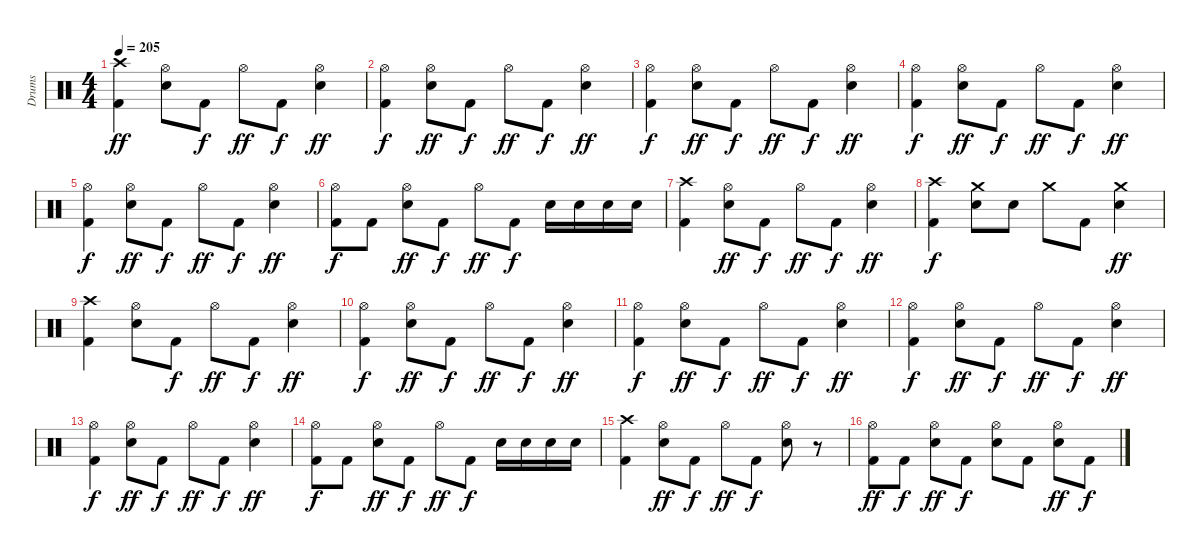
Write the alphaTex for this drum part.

\track ("Drums" "Drums") {instrument percussion}
\staff {score}
\articulation defaults
\ts (4 4)
\tempo 205
\clef neutral
\ks c
("Crash high (hit)" "Kick (hit) 2").4{dy ff} ("Hi-Hat (open)" "Electric Snare (hit)").8 "Kick (hit) 2".8{dy f} "Hi-Hat (open)".8{dy ff} "Kick (hit) 2".8{dy f} ("Hi-Hat (open)" "Electric Snare (hit)").4{dy ff} |
("Hi-Hat (open)" "Kick (hit) 2").4{dy f} ("Hi-Hat (open)" "Electric Snare (hit)").8{dy ff} "Kick (hit) 2".8{dy f} "Hi-Hat (open)".8{dy ff} "Kick (hit) 2".8{dy f} ("Hi-Hat (open)" "Electric Snare (hit)").4{dy ff} |
("Hi-Hat (open)" "Kick (hit) 2").4{dy f} ("Hi-Hat (open)" "Electric Snare (hit)").8{dy ff} "Kick (hit) 2".8{dy f} "Hi-Hat (open)".8{dy ff} "Kick (hit) 2".8{dy f} ("Hi-Hat (open)" "Electric Snare (hit)").4{dy ff} |
("Hi-Hat (open)" "Kick (hit) 2").4{dy f} ("Hi-Hat (open)" "Electric Snare (hit)").8{dy ff} "Kick (hit) 2".8{dy f} "Hi-Hat (open)".8{dy ff} "Kick (hit) 2".8{dy f} ("Hi-Hat (open)" "Electric Snare (hit)").4{dy ff} |
("Hi-Hat (open)" "Kick (hit) 2").4{dy f} ("Hi-Hat (open)" "Electric Snare (hit)").8{dy ff} "Kick (hit) 2".8{dy f} "Hi-Hat (open)".8{dy ff} "Kick (hit) 2".8{dy f} ("Hi-Hat (open)" "Electric Snare (hit)").4{dy ff} |
("Hi-Hat (open)" "Kick (hit) 2").8{dy f} "Kick (hit) 2".8 ("Hi-Hat (open)" "Electric Snare (hit)").8{dy ff} "Kick (hit) 2".8{dy f} "Hi-Hat (open)".8{dy ff} "Kick (hit) 2".8{dy f} "Electric Snare (hit)".16 "Electric Snare (hit)".16 "Electric Snare (hit)".16 "Electric Snare (hit)".16 |
("Crash high (hit)" "Kick (hit) 2").4 ("Hi-Hat (open)" "Electric Snare (hit)").8{dy ff} "Kick (hit) 2".8{dy f} "Hi-Hat (open)".8{dy ff} "Kick (hit) 2".8{dy f} ("Hi-Hat (open)" "Electric Snare (hit)").4{dy ff} |
("Crash high (hit)" "Kick (hit) 2").4{dy f} ("Crash medium (hit)" "Electric Snare (hit)").8 "Electric Snare (hit)".8 "Crash medium (hit)".8 "Kick (hit) 2".8 ("Crash medium (hit)" "Electric Snare (hit)").4{dy ff} |
("Crash high (hit)" "Kick (hit) 2").4 ("Hi-Hat (open)" "Electric Snare (hit)").8 "Kick (hit) 2".8{dy f} "Hi-Hat (open)".8{dy ff} "Kick (hit) 2".8{dy f} ("Hi-Hat (open)" "Electric Snare (hit)").4{dy ff} |
("Hi-Hat (open)" "Kick (hit) 2").4{dy f} ("Hi-Hat (open)" "Electric Snare (hit)").8{dy ff} "Kick (hit) 2".8{dy f} "Hi-Hat (open)".8{dy ff} "Kick (hit) 2".8{dy f} ("Hi-Hat (open)" "Electric Snare (hit)").4{dy ff} |
("Hi-Hat (open)" "Kick (hit) 2").4{dy f} ("Hi-Hat (open)" "Electric Snare (hit)").8{dy ff} "Kick (hit) 2".8{dy f} "Hi-Hat (open)".8{dy ff} "Kick (hit) 2".8{dy f} ("Hi-Hat (open)" "Electric Snare (hit)").4{dy ff} |
("Hi-Hat (open)" "Kick (hit) 2").4{dy f} ("Hi-Hat (open)" "Electric Snare (hit)").8{dy ff} "Kick (hit) 2".8{dy f} "Hi-Hat (open)".8{dy ff} "Kick (hit) 2".8{dy f} ("Hi-Hat (open)" "Electric Snare (hit)").4{dy ff} |
("Hi-Hat (open)" "Kick (hit) 2").4{dy f} ("Hi-Hat (open)" "Electric Snare (hit)").8{dy ff} "Kick (hit) 2".8{dy f} "Hi-Hat (open)".8{dy ff} "Kick (hit) 2".8{dy f} ("Hi-Hat (open)" "Electric Snare (hit)").4{dy ff} |
("Hi-Hat (open)" "Kick (hit) 2").8{dy f} "Kick (hit) 2".8 ("Hi-Hat (open)" "Electric Snare (hit)").8{dy ff} "Kick (hit) 2".8{dy f} "Hi-Hat (open)".8{dy ff} "Kick (hit) 2".8{dy f} "Electric Snare (hit)".16 "Electric Snare (hit)".16 "Electric Snare (hit)".16 "Electric Snare (hit)".16 |
("Crash high (hit)" "Kick (hit) 2").4 ("Hi-Hat (open)" "Electric Snare (hit)").8{dy ff} "Kick (hit) 2".8{dy f} "Hi-Hat (open)".8{dy ff} "Kick (hit) 2".8{dy f} ("Hi-Hat (open)" "Electric Snare (hit)").8 r.8 |
("Hi-Hat (open)" "Kick (hit) 2").8{dy ff} "Kick (hit) 2".8{dy f} ("Hi-Hat (open)" "Electric Snare (hit)").8{dy ff} "Kick (hit) 2".8{dy f} ("Hi-Hat (open)" "Electric Snare (hit)").8 "Kick (hit) 2".8 ("Hi-Hat (open)" "Electric Snare (hit)").8{dy ff} "Kick (hit) 2".8{dy f}
